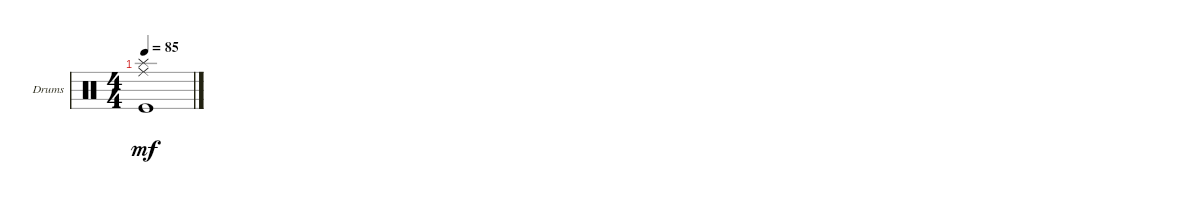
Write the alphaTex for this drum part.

\defaultSystemsLayout 4
\bracketExtendMode groupsimilarinstruments
\firstSystemTrackNameOrientation horizontal
\otherSystemsTrackNameOrientation horizontal
\track ("Drumkit" "Drums") {instrument percussion}
\staff {score}
\articulation defaults
\ts (4 4)
\tempo 85
\clef neutral
\scale
0.333333
\ks c
("Splash (hit)" "Kick (hit)" "Ride (middle)").1{dy mf}
